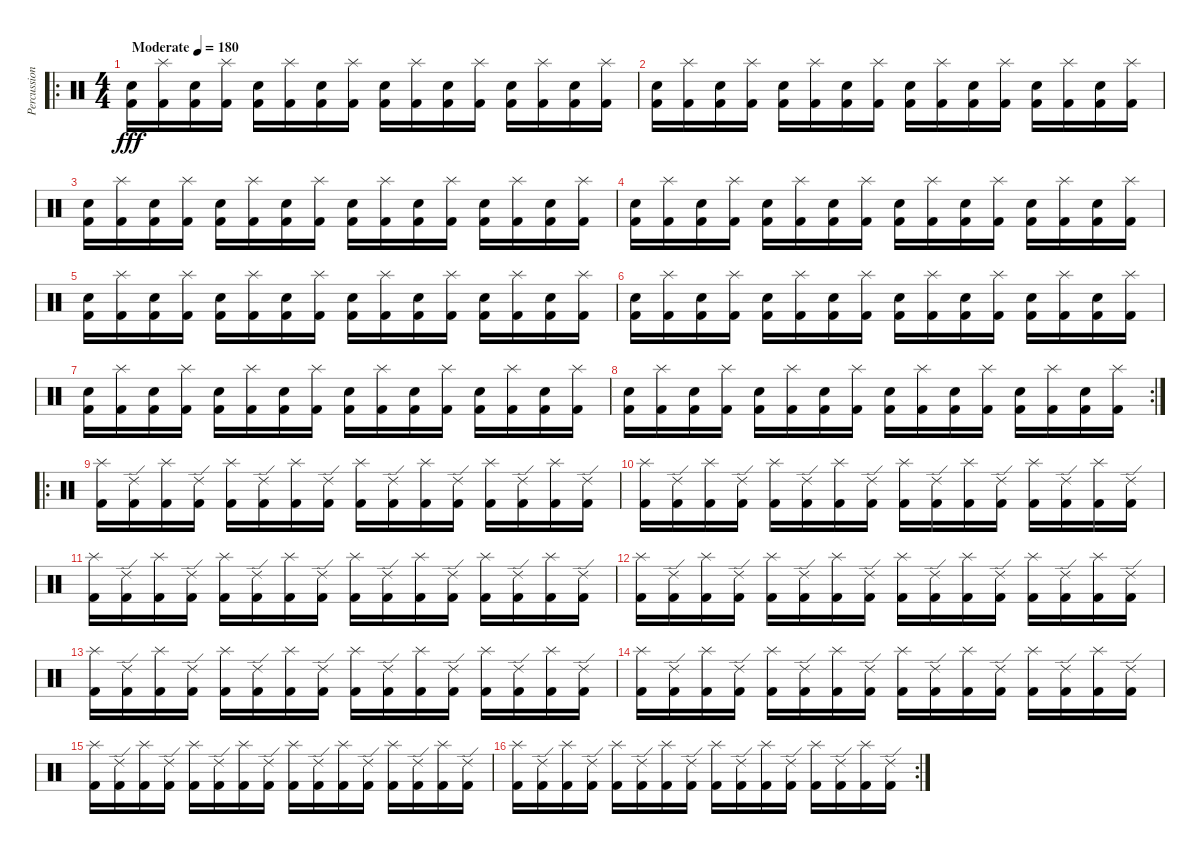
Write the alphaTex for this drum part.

\track ("Percussion" "Percussion") {instrument percussion}
\staff {score}
\articulation defaults
\ro
\ts (4 4)
\tempo (180 "Moderate")
\clef neutral
\ks c
("Electric Snare (hit)" "Kick (hit) 2").16{dy fff} ("Splash (hit)" "Kick (hit) 2").16 ("Electric Snare (hit)" "Kick (hit) 2").16 ("Splash (hit)" "Kick (hit) 2").16 ("Electric Snare (hit)" "Kick (hit) 2").16 ("Splash (hit)" "Kick (hit) 2").16 ("Electric Snare (hit)" "Kick (hit) 2").16 ("Splash (hit)" "Kick (hit) 2").16 ("Electric Snare (hit)" "Kick (hit) 2").16 ("Splash (hit)" "Kick (hit) 2").16 ("Electric Snare (hit)" "Kick (hit) 2").16 ("Splash (hit)" "Kick (hit) 2").16 ("Electric Snare (hit)" "Kick (hit) 2").16 ("Splash (hit)" "Kick (hit) 2").16 ("Electric Snare (hit)" "Kick (hit) 2").16 ("Splash (hit)" "Kick (hit) 2").16 |
("Electric Snare (hit)" "Kick (hit) 2").16 ("Splash (hit)" "Kick (hit) 2").16 ("Electric Snare (hit)" "Kick (hit) 2").16 ("Splash (hit)" "Kick (hit) 2").16 ("Electric Snare (hit)" "Kick (hit) 2").16 ("Splash (hit)" "Kick (hit) 2").16 ("Electric Snare (hit)" "Kick (hit) 2").16 ("Splash (hit)" "Kick (hit) 2").16 ("Electric Snare (hit)" "Kick (hit) 2").16 ("Splash (hit)" "Kick (hit) 2").16 ("Electric Snare (hit)" "Kick (hit) 2").16 ("Splash (hit)" "Kick (hit) 2").16 ("Electric Snare (hit)" "Kick (hit) 2").16 ("Splash (hit)" "Kick (hit) 2").16 ("Electric Snare (hit)" "Kick (hit) 2").16 ("Splash (hit)" "Kick (hit) 2").16 |
("Electric Snare (hit)" "Kick (hit) 2").16 ("Splash (hit)" "Kick (hit) 2").16 ("Electric Snare (hit)" "Kick (hit) 2").16 ("Splash (hit)" "Kick (hit) 2").16 ("Electric Snare (hit)" "Kick (hit) 2").16 ("Splash (hit)" "Kick (hit) 2").16 ("Electric Snare (hit)" "Kick (hit) 2").16 ("Splash (hit)" "Kick (hit) 2").16 ("Electric Snare (hit)" "Kick (hit) 2").16 ("Splash (hit)" "Kick (hit) 2").16 ("Electric Snare (hit)" "Kick (hit) 2").16 ("Splash (hit)" "Kick (hit) 2").16 ("Electric Snare (hit)" "Kick (hit) 2").16 ("Splash (hit)" "Kick (hit) 2").16 ("Electric Snare (hit)" "Kick (hit) 2").16 ("Splash (hit)" "Kick (hit) 2").16 |
("Electric Snare (hit)" "Kick (hit) 2").16 ("Splash (hit)" "Kick (hit) 2").16 ("Electric Snare (hit)" "Kick (hit) 2").16 ("Splash (hit)" "Kick (hit) 2").16 ("Electric Snare (hit)" "Kick (hit) 2").16 ("Splash (hit)" "Kick (hit) 2").16 ("Electric Snare (hit)" "Kick (hit) 2").16 ("Splash (hit)" "Kick (hit) 2").16 ("Electric Snare (hit)" "Kick (hit) 2").16 ("Splash (hit)" "Kick (hit) 2").16 ("Electric Snare (hit)" "Kick (hit) 2").16 ("Splash (hit)" "Kick (hit) 2").16 ("Electric Snare (hit)" "Kick (hit) 2").16 ("Splash (hit)" "Kick (hit) 2").16 ("Electric Snare (hit)" "Kick (hit) 2").16 ("Splash (hit)" "Kick (hit) 2").16 |
("Electric Snare (hit)" "Kick (hit) 2").16 ("Splash (hit)" "Kick (hit) 2").16 ("Electric Snare (hit)" "Kick (hit) 2").16 ("Splash (hit)" "Kick (hit) 2").16 ("Electric Snare (hit)" "Kick (hit) 2").16 ("Splash (hit)" "Kick (hit) 2").16 ("Electric Snare (hit)" "Kick (hit) 2").16 ("Splash (hit)" "Kick (hit) 2").16 ("Electric Snare (hit)" "Kick (hit) 2").16 ("Splash (hit)" "Kick (hit) 2").16 ("Electric Snare (hit)" "Kick (hit) 2").16 ("Splash (hit)" "Kick (hit) 2").16 ("Electric Snare (hit)" "Kick (hit) 2").16 ("Splash (hit)" "Kick (hit) 2").16 ("Electric Snare (hit)" "Kick (hit) 2").16 ("Splash (hit)" "Kick (hit) 2").16 |
("Electric Snare (hit)" "Kick (hit) 2").16 ("Splash (hit)" "Kick (hit) 2").16 ("Electric Snare (hit)" "Kick (hit) 2").16 ("Splash (hit)" "Kick (hit) 2").16 ("Electric Snare (hit)" "Kick (hit) 2").16 ("Splash (hit)" "Kick (hit) 2").16 ("Electric Snare (hit)" "Kick (hit) 2").16 ("Splash (hit)" "Kick (hit) 2").16 ("Electric Snare (hit)" "Kick (hit) 2").16 ("Splash (hit)" "Kick (hit) 2").16 ("Electric Snare (hit)" "Kick (hit) 2").16 ("Splash (hit)" "Kick (hit) 2").16 ("Electric Snare (hit)" "Kick (hit) 2").16 ("Splash (hit)" "Kick (hit) 2").16 ("Electric Snare (hit)" "Kick (hit) 2").16 ("Splash (hit)" "Kick (hit) 2").16 |
("Electric Snare (hit)" "Kick (hit) 2").16 ("Splash (hit)" "Kick (hit) 2").16 ("Electric Snare (hit)" "Kick (hit) 2").16 ("Splash (hit)" "Kick (hit) 2").16 ("Electric Snare (hit)" "Kick (hit) 2").16 ("Splash (hit)" "Kick (hit) 2").16 ("Electric Snare (hit)" "Kick (hit) 2").16 ("Splash (hit)" "Kick (hit) 2").16 ("Electric Snare (hit)" "Kick (hit) 2").16 ("Splash (hit)" "Kick (hit) 2").16 ("Electric Snare (hit)" "Kick (hit) 2").16 ("Splash (hit)" "Kick (hit) 2").16 ("Electric Snare (hit)" "Kick (hit) 2").16 ("Splash (hit)" "Kick (hit) 2").16 ("Electric Snare (hit)" "Kick (hit) 2").16 ("Splash (hit)" "Kick (hit) 2").16 |
\rc 2
("Electric Snare (hit)" "Kick (hit) 2").16 ("Splash (hit)" "Kick (hit) 2").16 ("Electric Snare (hit)" "Kick (hit) 2").16 ("Splash (hit)" "Kick (hit) 2").16 ("Electric Snare (hit)" "Kick (hit) 2").16 ("Splash (hit)" "Kick (hit) 2").16 ("Electric Snare (hit)" "Kick (hit) 2").16 ("Splash (hit)" "Kick (hit) 2").16 ("Electric Snare (hit)" "Kick (hit) 2").16 ("Splash (hit)" "Kick (hit) 2").16 ("Electric Snare (hit)" "Kick (hit) 2").16 ("Splash (hit)" "Kick (hit) 2").16 ("Electric Snare (hit)" "Kick (hit) 2").16 ("Splash (hit)" "Kick (hit) 2").16 ("Electric Snare (hit)" "Kick (hit) 2").16 ("Splash (hit)" "Kick (hit) 2").16 |
\ro
("Splash (hit)" "Kick (hit) 2").16 ("Ride (edge) 2" "Kick (hit) 2").16 ("Splash (hit)" "Kick (hit) 2").16 ("Ride (edge) 2" "Kick (hit) 2").16 ("Splash (hit)" "Kick (hit) 2").16 ("Ride (edge) 2" "Kick (hit) 2").16 ("Splash (hit)" "Kick (hit) 2").16 ("Ride (edge) 2" "Kick (hit) 2").16 ("Splash (hit)" "Kick (hit) 2").16 ("Ride (edge) 2" "Kick (hit) 2").16 ("Splash (hit)" "Kick (hit) 2").16 ("Ride (edge) 2" "Kick (hit) 2").16 ("Splash (hit)" "Kick (hit) 2").16 ("Ride (edge) 2" "Kick (hit) 2").16 ("Splash (hit)" "Kick (hit) 2").16 ("Ride (edge) 2" "Kick (hit) 2").16 |
("Splash (hit)" "Kick (hit) 2").16 ("Ride (edge) 2" "Kick (hit) 2").16 ("Splash (hit)" "Kick (hit) 2").16 ("Ride (edge) 2" "Kick (hit) 2").16 ("Splash (hit)" "Kick (hit) 2").16 ("Ride (edge) 2" "Kick (hit) 2").16 ("Splash (hit)" "Kick (hit) 2").16 ("Ride (edge) 2" "Kick (hit) 2").16 ("Splash (hit)" "Kick (hit) 2").16 ("Ride (edge) 2" "Kick (hit) 2").16 ("Splash (hit)" "Kick (hit) 2").16 ("Ride (edge) 2" "Kick (hit) 2").16 ("Splash (hit)" "Kick (hit) 2").16 ("Ride (edge) 2" "Kick (hit) 2").16 ("Splash (hit)" "Kick (hit) 2").16 ("Ride (edge) 2" "Kick (hit) 2").16 |
("Splash (hit)" "Kick (hit) 2").16 ("Ride (edge) 2" "Kick (hit) 2").16 ("Splash (hit)" "Kick (hit) 2").16 ("Ride (edge) 2" "Kick (hit) 2").16 ("Splash (hit)" "Kick (hit) 2").16 ("Ride (edge) 2" "Kick (hit) 2").16 ("Splash (hit)" "Kick (hit) 2").16 ("Ride (edge) 2" "Kick (hit) 2").16 ("Splash (hit)" "Kick (hit) 2").16 ("Ride (edge) 2" "Kick (hit) 2").16 ("Splash (hit)" "Kick (hit) 2").16 ("Ride (edge) 2" "Kick (hit) 2").16 ("Splash (hit)" "Kick (hit) 2").16 ("Ride (edge) 2" "Kick (hit) 2").16 ("Splash (hit)" "Kick (hit) 2").16 ("Ride (edge) 2" "Kick (hit) 2").16 |
("Splash (hit)" "Kick (hit) 2").16 ("Ride (edge) 2" "Kick (hit) 2").16 ("Splash (hit)" "Kick (hit) 2").16 ("Ride (edge) 2" "Kick (hit) 2").16 ("Splash (hit)" "Kick (hit) 2").16 ("Ride (edge) 2" "Kick (hit) 2").16 ("Splash (hit)" "Kick (hit) 2").16 ("Ride (edge) 2" "Kick (hit) 2").16 ("Splash (hit)" "Kick (hit) 2").16 ("Ride (edge) 2" "Kick (hit) 2").16 ("Splash (hit)" "Kick (hit) 2").16 ("Ride (edge) 2" "Kick (hit) 2").16 ("Splash (hit)" "Kick (hit) 2").16 ("Ride (edge) 2" "Kick (hit) 2").16 ("Splash (hit)" "Kick (hit) 2").16 ("Ride (edge) 2" "Kick (hit) 2").16 |
("Splash (hit)" "Kick (hit) 2").16 ("Ride (edge) 2" "Kick (hit) 2").16 ("Splash (hit)" "Kick (hit) 2").16 ("Ride (edge) 2" "Kick (hit) 2").16 ("Splash (hit)" "Kick (hit) 2").16 ("Ride (edge) 2" "Kick (hit) 2").16 ("Splash (hit)" "Kick (hit) 2").16 ("Ride (edge) 2" "Kick (hit) 2").16 ("Splash (hit)" "Kick (hit) 2").16 ("Ride (edge) 2" "Kick (hit) 2").16 ("Splash (hit)" "Kick (hit) 2").16 ("Ride (edge) 2" "Kick (hit) 2").16 ("Splash (hit)" "Kick (hit) 2").16 ("Ride (edge) 2" "Kick (hit) 2").16 ("Splash (hit)" "Kick (hit) 2").16 ("Ride (edge) 2" "Kick (hit) 2").16 |
("Splash (hit)" "Kick (hit) 2").16 ("Ride (edge) 2" "Kick (hit) 2").16 ("Splash (hit)" "Kick (hit) 2").16 ("Ride (edge) 2" "Kick (hit) 2").16 ("Splash (hit)" "Kick (hit) 2").16 ("Ride (edge) 2" "Kick (hit) 2").16 ("Splash (hit)" "Kick (hit) 2").16 ("Ride (edge) 2" "Kick (hit) 2").16 ("Splash (hit)" "Kick (hit) 2").16 ("Ride (edge) 2" "Kick (hit) 2").16 ("Splash (hit)" "Kick (hit) 2").16 ("Ride (edge) 2" "Kick (hit) 2").16 ("Splash (hit)" "Kick (hit) 2").16 ("Ride (edge) 2" "Kick (hit) 2").16 ("Splash (hit)" "Kick (hit) 2").16 ("Ride (edge) 2" "Kick (hit) 2").16 |
("Splash (hit)" "Kick (hit) 2").16 ("Ride (edge) 2" "Kick (hit) 2").16 ("Splash (hit)" "Kick (hit) 2").16 ("Ride (edge) 2" "Kick (hit) 2").16 ("Splash (hit)" "Kick (hit) 2").16 ("Ride (edge) 2" "Kick (hit) 2").16 ("Splash (hit)" "Kick (hit) 2").16 ("Ride (edge) 2" "Kick (hit) 2").16 ("Splash (hit)" "Kick (hit) 2").16 ("Ride (edge) 2" "Kick (hit) 2").16 ("Splash (hit)" "Kick (hit) 2").16 ("Ride (edge) 2" "Kick (hit) 2").16 ("Splash (hit)" "Kick (hit) 2").16 ("Ride (edge) 2" "Kick (hit) 2").16 ("Splash (hit)" "Kick (hit) 2").16 ("Ride (edge) 2" "Kick (hit) 2").16 |
\rc 2
("Splash (hit)" "Kick (hit) 2").16 ("Ride (edge) 2" "Kick (hit) 2").16 ("Splash (hit)" "Kick (hit) 2").16 ("Ride (edge) 2" "Kick (hit) 2").16 ("Splash (hit)" "Kick (hit) 2").16 ("Ride (edge) 2" "Kick (hit) 2").16 ("Splash (hit)" "Kick (hit) 2").16 ("Ride (edge) 2" "Kick (hit) 2").16 ("Splash (hit)" "Kick (hit) 2").16 ("Ride (edge) 2" "Kick (hit) 2").16 ("Splash (hit)" "Kick (hit) 2").16 ("Ride (edge) 2" "Kick (hit) 2").16 ("Splash (hit)" "Kick (hit) 2").16 ("Ride (edge) 2" "Kick (hit) 2").16 ("Splash (hit)" "Kick (hit) 2").16 ("Ride (edge) 2" "Kick (hit) 2").16
